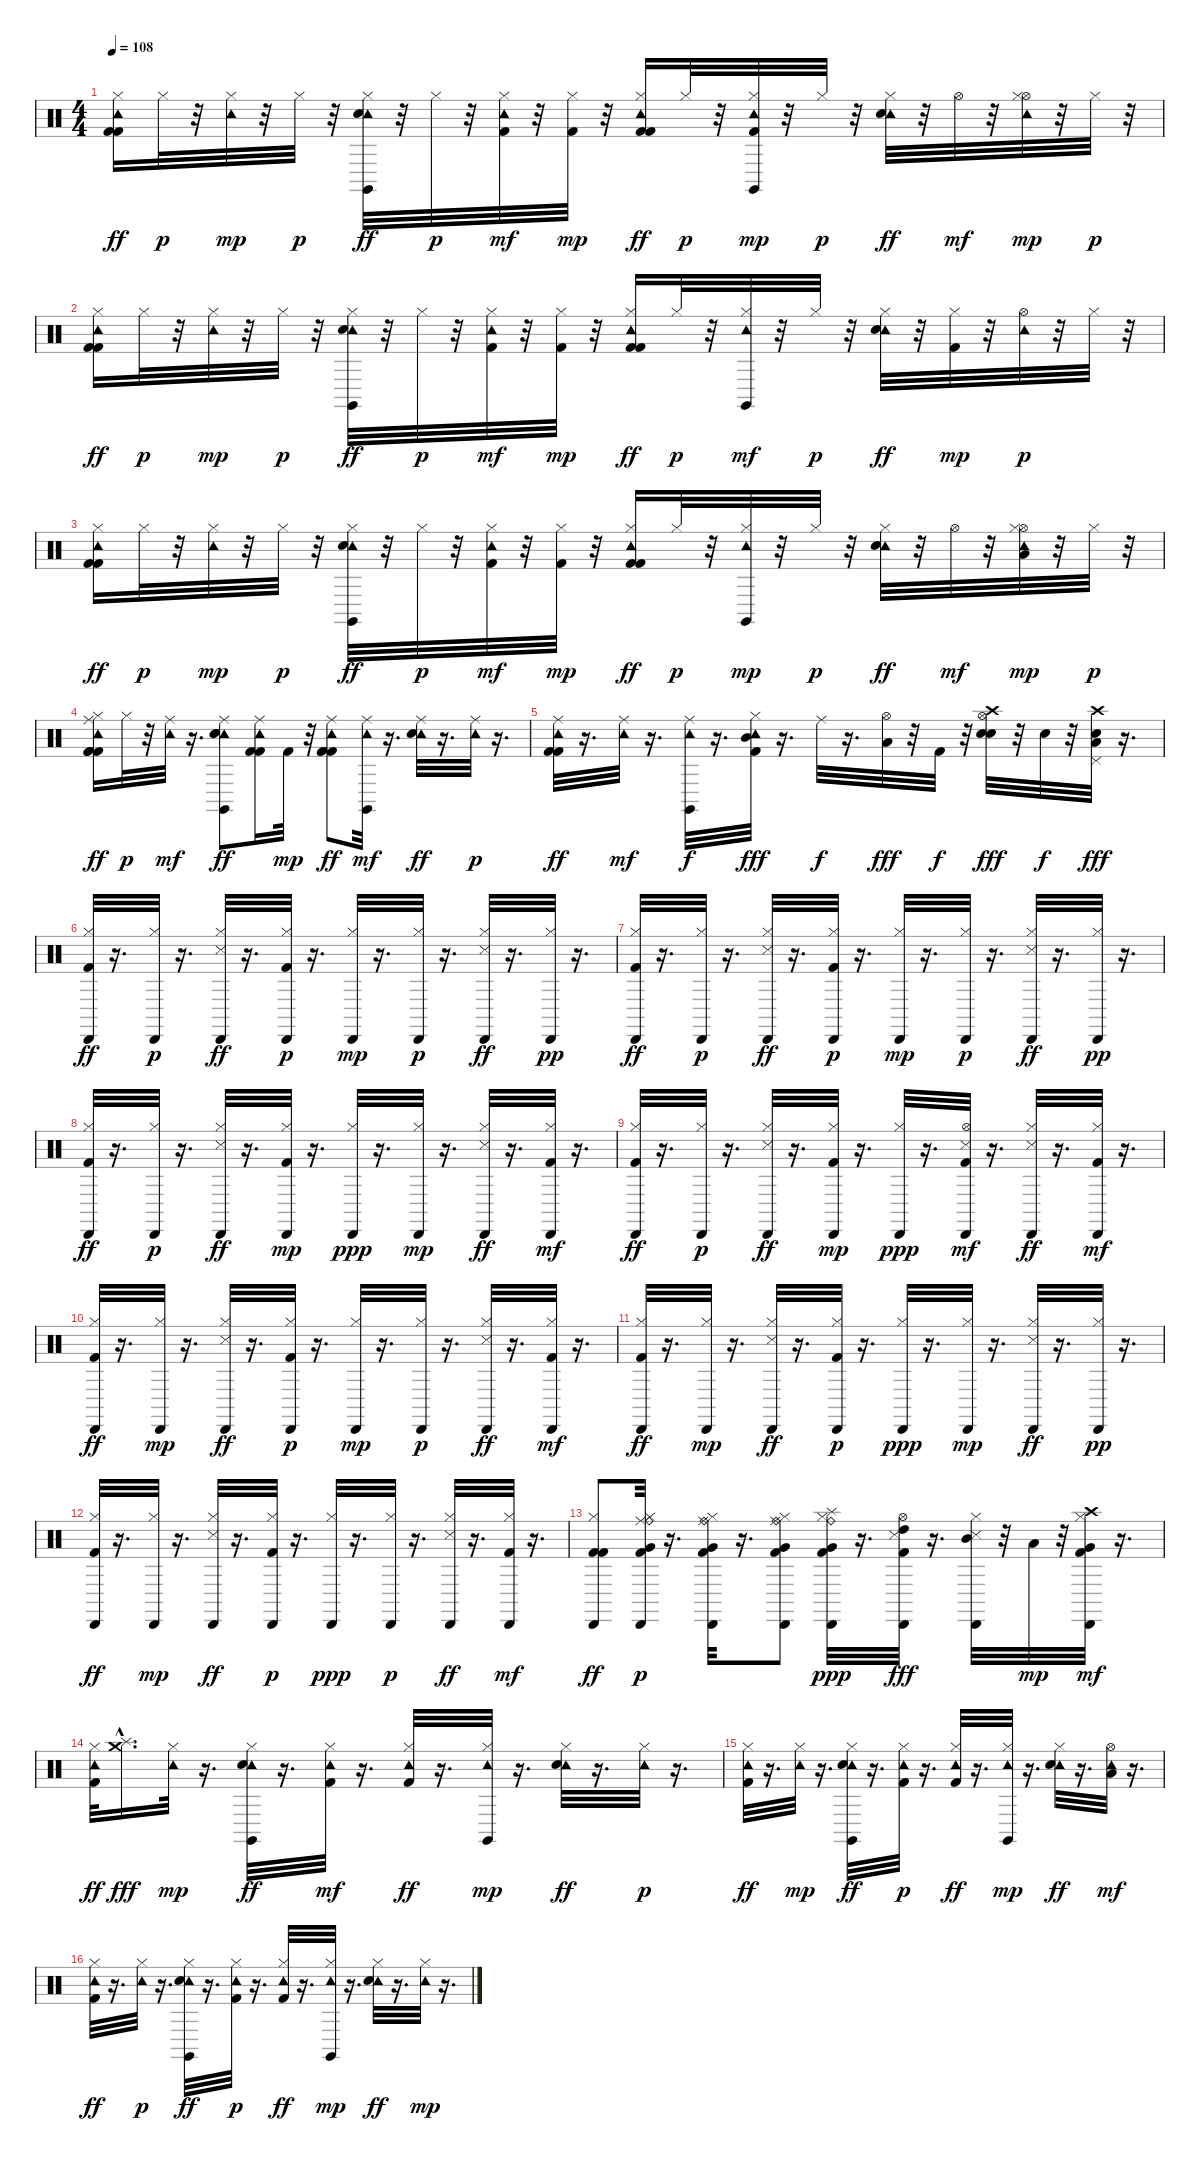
\track "" {instrument percussion}
\staff {score}
\articulation defaults
\ts (4 4)
\tempo 108
\clef neutral
\ks c
("Tambourine (hit)" "Kick (hit) 2" "Hi-Hat (closed)" "Kick (hit) 2").16{dy ff} "Hi-Hat (closed)".32{dy p} r.32 ("Hi-Hat (closed)" "Tambourine (hit)").32{dy mp} r.32 "Hi-Hat (closed)".32{dy p} r.32 ("Tambourine (hit)" "Claves (hit)" "Hi-Hat (closed)" "Snare (hit) 2").32{dy ff} r.32 "Hi-Hat (closed)".32{dy p} r.32 ("Tambourine (hit)" "Kick (hit) 2" "Hi-Hat (closed)").32{dy mf} r.32 ("Hi-Hat (closed)" "Kick (hit) 2").32{dy mp} r.32 ("Kick (hit) 2" "Tambourine (hit)" "Hi-Hat (closed)" "Kick (hit) 2").16{dy ff} "Hi-Hat (closed)".32{dy p} r.32 ("Tambourine (hit)" "Claves (hit)" "Kick (hit) 2" "Hi-Hat (closed)").32{dy mp} r.32 "Hi-Hat (closed)".32{dy p} r.32 ("Tambourine (hit)" "Hi-Hat (closed)" "Snare (hit) 2").32{dy ff} r.32 "Hi-Hat (open)".32{dy mf} r.32 ("Tambourine (hit)" "Hi-Hat (open)" "Hi-Hat (closed)").32{dy mp} r.32 "Hi-Hat (closed)".32{dy p} r.32 |
("Kick (hit) 2" "Tambourine (hit)" "Hi-Hat (closed)" "Kick (hit) 2").16{dy ff} "Hi-Hat (closed)".32{dy p} r.32 ("Tambourine (hit)" "Hi-Hat (closed)").32{dy mp} r.32 "Hi-Hat (closed)".32{dy p} r.32 ("Tambourine (hit)" "Claves (hit)" "Hi-Hat (closed)" "Snare (hit) 2").32{dy ff} r.32 "Hi-Hat (closed)".32{dy p} r.32 ("Kick (hit) 2" "Tambourine (hit)" "Hi-Hat (closed)").32{dy mf} r.32 ("Hi-Hat (closed)" "Kick (hit) 2").32{dy mp} r.32 ("Kick (hit) 2" "Tambourine (hit)" "Hi-Hat (closed)" "Kick (hit) 2").16{dy ff} "Hi-Hat (closed)".32{dy p} r.32 ("Tambourine (hit)" "Claves (hit)" "Hi-Hat (closed)").32{dy mf} r.32 "Hi-Hat (closed)".32{dy p} r.32 ("Tambourine (hit)" "Hi-Hat (closed)" "Snare (hit) 2").32{dy ff} r.32 ("Hi-Hat (closed)" "Kick (hit) 2").32{dy mp} r.32 ("Tambourine (hit)" "Hi-Hat (open)").32{dy p} r.32 "Hi-Hat (closed)".32 r.32 |
("Tambourine (hit)" "Kick (hit) 2" "Hi-Hat (closed)" "Kick (hit) 2").16{dy ff} "Hi-Hat (closed)".32{dy p} r.32 ("Hi-Hat (closed)" "Tambourine (hit)").32{dy mp} r.32 "Hi-Hat (closed)".32{dy p} r.32 ("Tambourine (hit)" "Claves (hit)" "Hi-Hat (closed)" "Snare (hit) 2").32{dy ff} r.32 "Hi-Hat (closed)".32{dy p} r.32 ("Tambourine (hit)" "Kick (hit) 2" "Hi-Hat (closed)").32{dy mf} r.32 ("Hi-Hat (closed)" "Kick (hit) 2").32{dy mp} r.32 ("Tambourine (hit)" "Kick (hit) 2" "Hi-Hat (closed)" "Kick (hit) 2").16{dy ff} "Hi-Hat (closed)".32{dy p} r.32 ("Tambourine (hit)" "Claves (hit)" "Hi-Hat (closed)").32{dy mp} r.32 "Hi-Hat (closed)".32{dy p} r.32 ("Tambourine (hit)" "Hi-Hat (closed)" "Snare (hit) 2").32{dy ff} r.32 "Hi-Hat (open)".32{dy mf} r.32 ("Tambourine (hit)" "Hi-Hat (open)" "Low Tom (hit)" "Hi-Hat (closed)").32{dy mp} r.32 "Hi-Hat (closed)".32{dy p} r.32 |
("Kick (hit) 2" "Tambourine (hit)" "Ride (middle)" "Hi-Hat (closed)" "Kick (hit) 2" "Kick (hit) 2").16{dy ff} "Hi-Hat (closed)".32{dy p} r.32 ("Tambourine (hit)" "Ride (middle)").32{dy mf} r.16{d} ("Tambourine (hit)" "Claves (hit)" "Ride (middle)" "Snare (hit) 2" "Snare (hit) 2").8{dy ff} ("Tambourine (hit)" "Kick (hit) 2" "Ride (middle)" "Kick (hit) 2").16 "Kick (hit) 2".32{dy mp} r.32 ("Tambourine (hit)" "Kick (hit) 2" "Ride (middle)" "Kick (hit) 2" "Kick (hit) 2").8{dy ff} ("Tambourine (hit)" "Claves (hit)" "Ride (middle)").32{dy mf} r.16{d} ("Tambourine (hit)" "Ride (middle)" "Snare (hit) 2").32{dy ff} r.16{d} ("Tambourine (hit)" "Ride (middle)").32{dy p} r.16{d} |
("Kick (hit) 2" "Ride (middle)" "Kick (hit) 2" "Tambourine (hit)").32{dy ff} r.16{d} ("Tambourine (hit)" "Ride (middle)").32{dy mf} r.16{d} ("Ride (middle)" "Tambourine (hit)" "Claves (hit)").32{dy f} r.16{d} ("Tambourine (hit)" "Kick (hit) 2" "Hi-Hat (closed)" "Mid Tom (hit)").32{dy fff} r.16{d} "Ride (middle)".32{dy f} r.16{d} ("Hi-Hat (open)" "Low Tom (hit)").32{dy fff} r.32 "Kick (hit) 2".32{dy f} r.32 ("Electric Snare (hit)" "Hi-Hat (open)" "Crash high (hit)" "Snare (hit) 2").32{dy fff} r.32 "Electric Snare (hit)".32{dy f} r.32 ("Pedal Hi-Hat (hit)" "Low Tom (hit)" "Crash high (hit)" "Snare (hit) 2").32{dy fff} r.16{d} |
("Hi-Hat (closed)" "Cabasa (hit)" "Kick (hit) 2").32{dy ff} r.16{d} ("Hi-Hat (closed)" "Cabasa (hit)").32{dy p} r.16{d} ("Hi-Hat (closed)" "Cabasa (hit)" "Snare (side stick) 3").32{dy ff} r.16{d} ("Hi-Hat (closed)" "Cabasa (hit)" "Kick (hit) 2").32{dy p} r.16{d} ("Cabasa (hit)" "Hi-Hat (closed)").32{dy mp} r.16{d} ("Hi-Hat (closed)" "Cabasa (hit)").32{dy p} r.16{d} ("Hi-Hat (closed)" "Cabasa (hit)" "Snare (side stick) 3").32{dy ff} r.16{d} ("Hi-Hat (closed)" "Cabasa (hit)").32{dy pp} r.16{d} |
("Hi-Hat (closed)" "Cabasa (hit)" "Kick (hit) 2").32{dy ff} r.16{d} ("Hi-Hat (closed)" "Cabasa (hit)").32{dy p} r.16{d} ("Hi-Hat (closed)" "Cabasa (hit)" "Snare (side stick) 3").32{dy ff} r.16{d} ("Hi-Hat (closed)" "Cabasa (hit)" "Kick (hit) 2").32{dy p} r.16{d} ("Cabasa (hit)" "Hi-Hat (closed)").32{dy mp} r.16{d} ("Hi-Hat (closed)" "Cabasa (hit)").32{dy p} r.16{d} ("Hi-Hat (closed)" "Cabasa (hit)" "Snare (side stick) 3").32{dy ff} r.16{d} ("Hi-Hat (closed)" "Cabasa (hit)").32{dy pp} r.16{d} |
("Cabasa (hit)" "Hi-Hat (closed)" "Kick (hit) 2").32{dy ff} r.16{d} ("Hi-Hat (closed)" "Cabasa (hit)").32{dy p} r.16{d} ("Hi-Hat (closed)" "Cabasa (hit)" "Snare (side stick) 3").32{dy ff} r.16{d} ("Cabasa (hit)" "Hi-Hat (closed)" "Kick (hit) 2").32{dy mp} r.16{d} ("Hi-Hat (closed)" "Cabasa (hit)").32{dy ppp} r.16{d} ("Cabasa (hit)" "Hi-Hat (closed)").32{dy mp} r.16{d} ("Hi-Hat (closed)" "Cabasa (hit)" "Snare (side stick) 3").32{dy ff} r.16{d} ("Hi-Hat (closed)" "Cabasa (hit)" "Kick (hit) 2").32{dy mf} r.16{d} |
("Cabasa (hit)" "Hi-Hat (closed)" "Kick (hit) 2").32{dy ff} r.16{d} ("Hi-Hat (closed)" "Cabasa (hit)").32{dy p} r.16{d} ("Hi-Hat (closed)" "Cabasa (hit)" "Snare (side stick) 3").32{dy ff} r.16{d} ("Cabasa (hit)" "Hi-Hat (closed)" "Kick (hit) 2").32{dy mp} r.16{d} ("Hi-Hat (closed)" "Cabasa (hit)").32{dy ppp} r.16{d} ("Cabasa (hit)" "Hi-Hat (open)" "Snare (side stick) 3" "Kick (hit) 2").32{dy mf} r.16{d} ("Hi-Hat (closed)" "Cabasa (hit)" "Snare (side stick) 3").32{dy ff} r.16{d} ("Cabasa (hit)" "Hi-Hat (closed)" "Kick (hit) 2").32{dy mf} r.16{d} |
("Hi-Hat (closed)" "Cabasa (hit)" "Kick (hit) 2").32{dy ff} r.16{d} ("Cabasa (hit)" "Hi-Hat (closed)").32{dy mp} r.16{d} ("Hi-Hat (closed)" "Cabasa (hit)" "Snare (side stick) 3").32{dy ff} r.16{d} ("Hi-Hat (closed)" "Cabasa (hit)" "Kick (hit) 2").32{dy p} r.16{d} ("Cabasa (hit)" "Hi-Hat (closed)").32{dy mp} r.16{d} ("Hi-Hat (closed)" "Cabasa (hit)").32{dy p} r.16{d} ("Hi-Hat (closed)" "Cabasa (hit)" "Snare (side stick) 3").32{dy ff} r.16{d} ("Hi-Hat (closed)" "Cabasa (hit)" "Kick (hit) 2").32{dy mf} r.16{d} |
("Hi-Hat (closed)" "Cabasa (hit)" "Kick (hit) 2").32{dy ff} r.16{d} ("Cabasa (hit)" "Hi-Hat (closed)").32{dy mp} r.16{d} ("Hi-Hat (closed)" "Cabasa (hit)" "Snare (side stick) 3").32{dy ff} r.16{d} ("Hi-Hat (closed)" "Cabasa (hit)" "Kick (hit) 2").32{dy p} r.16{d} ("Hi-Hat (closed)" "Cabasa (hit)").32{dy ppp} r.16{d} ("Cabasa (hit)" "Hi-Hat (closed)").32{dy mp} r.16{d} ("Hi-Hat (closed)" "Cabasa (hit)" "Snare (side stick) 3").32{dy ff} r.16{d} ("Hi-Hat (closed)" "Cabasa (hit)").32{dy pp} r.16{d} |
("Cabasa (hit)" "Hi-Hat (closed)" "Kick (hit) 2").32{dy ff} r.16{d} ("Cabasa (hit)" "Hi-Hat (closed)").32{dy mp} r.16{d} ("Hi-Hat (closed)" "Cabasa (hit)" "Snare (side stick) 3").32{dy ff} r.16{d} ("Hi-Hat (closed)" "Cabasa (hit)" "Kick (hit) 2").32{dy p} r.16{d} ("Hi-Hat (closed)" "Cabasa (hit)").32{dy ppp} r.16{d} ("Hi-Hat (closed)" "Cabasa (hit)").32{dy p} r.16{d} ("Hi-Hat (closed)" "Cabasa (hit)" "Snare (side stick) 3").32{dy ff} r.16{d} ("Hi-Hat (closed)" "Cabasa (hit)" "Kick (hit) 2").32{dy mf} r.16{d} |
("Kick (hit) 2" "Hi-Hat (closed)" "Cabasa (hit)" "Kick (hit) 2").8{dy ff} ("Very Low Tom (hit)" "Ride (middle)" "Kick (hit) 2" "Ride (bell)" "Hi-Hat (closed)" "Cabasa (hit)").32{dy p} r.16{d} ("Very Low Tom (hit)" "Ride (middle)" "Kick (hit) 2" "Ride (bell)" "Hi-Hat (closed)" "Cabasa (hit)").32 r.16{d} ("Very Low Tom (hit)" "Ride (middle)" "Kick (hit) 2" "Ride (bell)" "Hi-Hat (closed)" "Cabasa (hit)").8 ("Very Low Tom (hit)" "Kick (hit) 2" "Ride (bell)" "Splash (hit)" "Hi-Hat (closed)" "Cabasa (hit)").32{dy ppp} r.16{d} ("Cabasa (hit)" "Hi-Hat (open)" "Snare (side stick) 3" "Kick (hit) 2" "High Tom (hit)").32{dy fff} r.16{d} ("Hi-Hat (closed)" "Cabasa (hit)" "Snare (side stick) 3" "Mid Tom (hit)").32 r.32 "Low Tom (hit)".32{dy mp} r.32 ("Very Low Tom (hit)" "Crash high (hit)" "Hi-Hat (closed)" "Cabasa (hit)" "Kick (hit) 2").32{dy mf} r.16{d} |
("Hi-Hat (closed)" "Tambourine (hit)" "Kick (hit) 2").32{dy ff} ("Splash (hit)"{hac} "Crash medium (hit)"{hac}).16{d dy fff} ("Hi-Hat (closed)" "Tambourine (hit)").32{dy mp} r.16{d} ("Hi-Hat (closed)" "Tambourine (hit)" "Claves (hit)" "Snare (hit) 2").32{dy ff} r.16{d} ("Tambourine (hit)" "Hi-Hat (closed)" "Kick (hit) 2").32{dy mf} r.16{d} ("Hi-Hat (closed)" "Tambourine (hit)" "Kick (hit) 2").32{dy ff} r.16{d} ("Tambourine (hit)" "Claves (hit)" "Hi-Hat (closed)").32{dy mp} r.16{d} ("Hi-Hat (closed)" "Tambourine (hit)" "Snare (hit) 2").32{dy ff} r.16{d} ("Hi-Hat (closed)" "Tambourine (hit)").32{dy p} r.16{d} |
("Hi-Hat (closed)" "Tambourine (hit)" "Kick (hit) 2").32{dy ff} r.16{d} ("Hi-Hat (closed)" "Tambourine (hit)").32{dy mp} r.16{d} ("Hi-Hat (closed)" "Tambourine (hit)" "Claves (hit)" "Snare (hit) 2").32{dy ff} r.16{d} ("Hi-Hat (closed)" "Tambourine (hit)" "Kick (hit) 2").32{dy p} r.16{d} ("Tambourine (hit)" "Hi-Hat (closed)" "Kick (hit) 2").32{dy ff} r.16{d} ("Hi-Hat (closed)" "Tambourine (hit)" "Claves (hit)").32{dy mp} r.16{d} ("Hi-Hat (closed)" "Tambourine (hit)" "Snare (hit) 2").32{dy ff} r.16{d} ("Tambourine (hit)" "Hi-Hat (open)" "Low Tom (hit)").32{dy mf} r.16{d} |
("Hi-Hat (closed)" "Tambourine (hit)" "Kick (hit) 2").32{dy ff} r.16{d} ("Tambourine (hit)" "Hi-Hat (closed)").32{dy p} r.16{d} ("Hi-Hat (closed)" "Tambourine (hit)" "Claves (hit)" "Snare (hit) 2").32{dy ff} r.16{d} ("Hi-Hat (closed)" "Tambourine (hit)" "Kick (hit) 2").32{dy p} r.16{d} ("Tambourine (hit)" "Hi-Hat (closed)" "Kick (hit) 2").32{dy ff} r.16{d} ("Hi-Hat (closed)" "Tambourine (hit)" "Claves (hit)").32{dy mp} r.16{d} ("Hi-Hat (closed)" "Tambourine (hit)" "Snare (hit) 2").32{dy ff} r.16{d} ("Tambourine (hit)" "Hi-Hat (closed)").32{dy mp} r.16{d}
